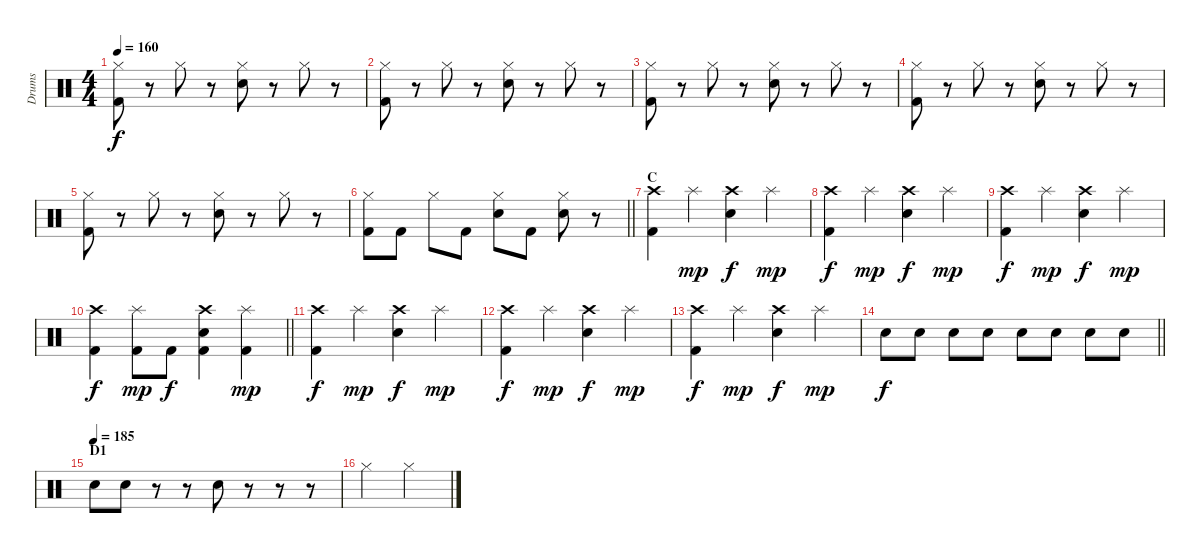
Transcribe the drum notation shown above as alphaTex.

\track ("Drums" "Drums") {instrument percussion}
\staff {score}
\articulation defaults
\ts (4 4)
\tempo 160
\clef neutral
\ks c
("Hi-Hat (closed)" "Kick (hit) 2").8{dy f} r.8 "Hi-Hat (closed)".8 r.8 ("Hi-Hat (closed)" "Snare (hit) 2").8 r.8 "Hi-Hat (closed)".8 r.8 |
("Hi-Hat (closed)" "Kick (hit) 2").8 r.8 "Hi-Hat (closed)".8 r.8 ("Hi-Hat (closed)" "Snare (hit) 2").8 r.8 "Hi-Hat (closed)".8 r.8 |
("Hi-Hat (closed)" "Kick (hit) 2").8 r.8 "Hi-Hat (closed)".8 r.8 ("Hi-Hat (closed)" "Snare (hit) 2").8 r.8 "Hi-Hat (closed)".8 r.8 |
("Hi-Hat (closed)" "Kick (hit) 2").8 r.8 "Hi-Hat (closed)".8 r.8 ("Hi-Hat (closed)" "Snare (hit) 2").8 r.8 "Hi-Hat (closed)".8 r.8 |
("Hi-Hat (closed)" "Kick (hit) 2").8 r.8 "Hi-Hat (closed)".8 r.8 ("Hi-Hat (closed)" "Snare (hit) 2").8 r.8 "Hi-Hat (closed)".8 r.8 |
\barLineRight lightlight
("Hi-Hat (closed)" "Kick (hit) 2").8 "Kick (hit) 2".8 "Hi-Hat (closed)".8 "Kick (hit) 2".8 ("Hi-Hat (closed)" "Snare (hit) 2").8 "Kick (hit) 2".8 ("Hi-Hat (closed)" "Snare (hit) 2").8 r.8 |
\section ("" "C")
("Crash high (hit)" "Kick (hit) 2").4 "Splash (hit)".4{dy mp} ("Crash high (hit)" "Snare (hit) 2").4{dy f} "Splash (hit)".4{dy mp} |
("Crash high (hit)" "Kick (hit) 2").4{dy f} "Splash (hit)".4{dy mp} ("Crash high (hit)" "Snare (hit) 2").4{dy f} "Splash (hit)".4{dy mp} |
("Crash high (hit)" "Kick (hit) 2").4{dy f} "Splash (hit)".4{dy mp} ("Crash high (hit)" "Snare (hit) 2").4{dy f} "Splash (hit)".4{dy mp} |
\barLineRight lightlight
("Crash high (hit)" "Kick (hit) 2").4{dy f} ("Splash (hit)" "Kick (hit) 2").8{dy mp} "Kick (hit) 2".8{dy f} ("Crash high (hit)" "Snare (hit) 2" "Kick (hit) 2").4 ("Splash (hit)" "Kick (hit) 2").4{dy mp} |
("Crash high (hit)" "Kick (hit) 2").4{dy f} "Splash (hit)".4{dy mp} ("Crash high (hit)" "Snare (hit) 2").4{dy f} "Splash (hit)".4{dy mp} |
("Crash high (hit)" "Kick (hit) 2").4{dy f} "Splash (hit)".4{dy mp} ("Crash high (hit)" "Snare (hit) 2").4{dy f} "Splash (hit)".4{dy mp} |
("Crash high (hit)" "Kick (hit) 2").4{dy f} "Splash (hit)".4{dy mp} ("Crash high (hit)" "Snare (hit) 2").4{dy f} "Splash (hit)".4{dy mp} |
\barLineRight lightlight "Snare (hit) 2".8{dy f} "Snare (hit) 2".8 "Snare (hit) 2".8 "Snare (hit) 2".8 "Snare (hit) 2".8 "Snare (hit) 2".8 "Snare (hit) 2".8 "Snare (hit) 2".8
|
\section ("" "D1")
\tempo (185)
"Snare (hit) 2".8 "Snare (hit) 2".8 r.8 r.8 "Snare (hit) 2".8 r.8 r.8 r.8 |
"Hi-Hat (closed)".2 "Hi-Hat (closed)".2
